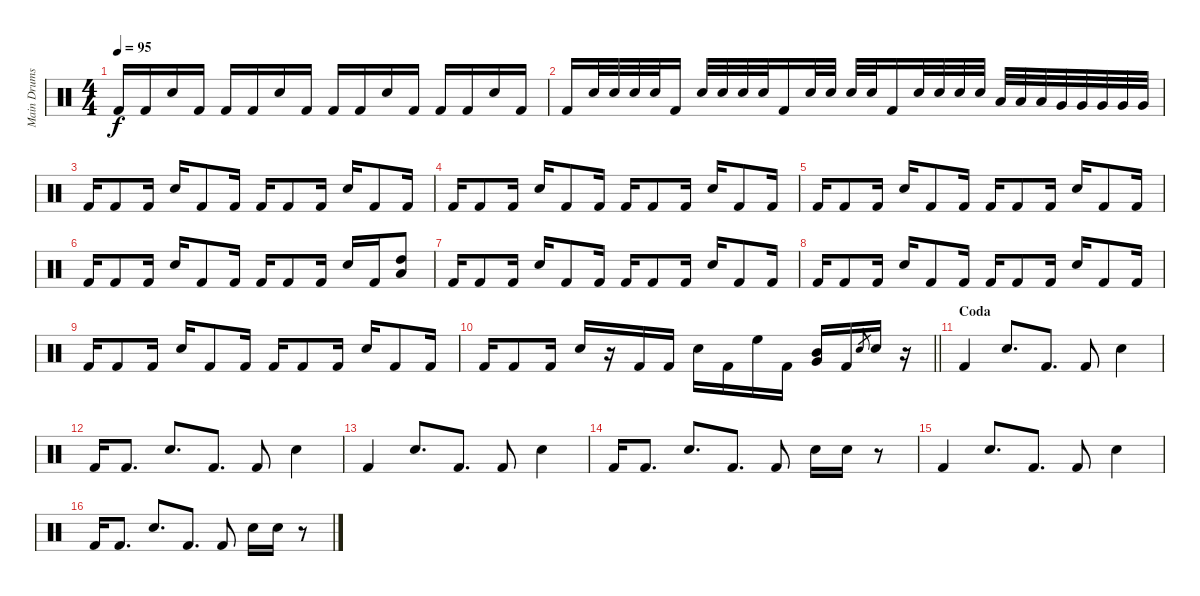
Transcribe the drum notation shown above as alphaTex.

\track ("Main Drums" "Main Drums") {instrument percussion}
\staff {score}
\articulation defaults
\ts (4 4)
\tempo 95
\clef neutral
\ks c "Kick (hit) 2".16{dy f} "Kick (hit) 2".16 "Snare (hit) 2".16 "Kick (hit) 2".16 "Kick (hit) 2".16 "Kick (hit) 2".16 "Snare (hit) 2".16 "Kick (hit) 2".16 "Kick (hit) 2".16 "Kick (hit) 2".16 "Snare (hit) 2".16 "Kick (hit) 2".16 "Kick (hit) 2".16 "Kick (hit) 2".16 "Snare (hit) 2".16 "Kick (hit) 2".16
|
"Kick (hit) 2".16 "Snare (hit) 2".32 "Snare (hit) 2".32 "Snare (hit) 2".32 "Snare (hit) 2".32 "Kick (hit) 2".16 "Snare (hit) 2".32 "Snare (hit) 2".32 "Snare (hit) 2".32 "Snare (hit) 2".32 "Kick (hit) 2".16 "Snare (hit) 2".32 "Snare (hit) 2".32 "Snare (hit) 2".32 "Snare (hit) 2".32 "Kick (hit) 2".16 "Snare (hit) 2".32 "Snare (hit) 2".32 "Snare (hit) 2".32 "Snare (hit) 2".32 "Low Tom (hit)".32 "Low Tom (hit)".32 "Low Tom (hit)".32 "Very Low Tom (hit)".32 "Very Low Tom (hit)".32 "Very Low Tom (hit)".32 "Very Low Tom (hit)".32 "Very Low Tom (hit)".32 |
"Kick (hit) 2".16 "Kick (hit) 2".8 "Kick (hit) 2".16 "Snare (hit) 2".16 "Kick (hit) 2".8 "Kick (hit) 2".16 "Kick (hit) 2".16 "Kick (hit) 2".8 "Kick (hit) 2".16 "Snare (hit) 2".16 "Kick (hit) 2".8 "Kick (hit) 2".16 |
"Kick (hit) 2".16 "Kick (hit) 2".8 "Kick (hit) 2".16 "Snare (hit) 2".16 "Kick (hit) 2".8 "Kick (hit) 2".16 "Kick (hit) 2".16 "Kick (hit) 2".8 "Kick (hit) 2".16 "Snare (hit) 2".16 "Kick (hit) 2".8 "Kick (hit) 2".16 |
"Kick (hit) 2".16 "Kick (hit) 2".8 "Kick (hit) 2".16 "Snare (hit) 2".16 "Kick (hit) 2".8 "Kick (hit) 2".16 "Kick (hit) 2".16 "Kick (hit) 2".8 "Kick (hit) 2".16 "Snare (hit) 2".16 "Kick (hit) 2".8 "Kick (hit) 2".16 |
"Kick (hit) 2".16 "Kick (hit) 2".8 "Kick (hit) 2".16 "Snare (hit) 2".16 "Kick (hit) 2".8 "Kick (hit) 2".16 "Kick (hit) 2".16 "Kick (hit) 2".8 "Kick (hit) 2".16 "Snare (hit) 2".16 "Kick (hit) 2".16 ("Low Floor Tom (hit)" "High Tom (hit)").8 |
"Kick (hit) 2".16 "Kick (hit) 2".8 "Kick (hit) 2".16 "Snare (hit) 2".16 "Kick (hit) 2".8 "Kick (hit) 2".16 "Kick (hit) 2".16 "Kick (hit) 2".8 "Kick (hit) 2".16 "Snare (hit) 2".16 "Kick (hit) 2".8 "Kick (hit) 2".16 |
"Kick (hit) 2".16 "Kick (hit) 2".8 "Kick (hit) 2".16 "Snare (hit) 2".16 "Kick (hit) 2".8 "Kick (hit) 2".16 "Kick (hit) 2".16 "Kick (hit) 2".8 "Kick (hit) 2".16 "Snare (hit) 2".16 "Kick (hit) 2".8 "Kick (hit) 2".16 |
"Kick (hit) 2".16 "Kick (hit) 2".8 "Kick (hit) 2".16 "Snare (hit) 2".16 "Kick (hit) 2".8 "Kick (hit) 2".16 "Kick (hit) 2".16 "Kick (hit) 2".8 "Kick (hit) 2".16 "Snare (hit) 2".16 "Kick (hit) 2".8 "Kick (hit) 2".16 |
\barLineRight lightlight "Kick (hit) 2".16 "Kick (hit) 2".8 "Kick (hit) 2".16 "Snare (hit) 2".16
r.16 "Kick (hit) 2".16 "Kick (hit) 2".16 "Snare (hit) 2".16 "Kick (hit) 2".16 "High Floor Tom (hit)".16 "Kick (hit) 2".16 ("Mid Tom (hit)" "Very Low Tom (hit)").16 "Kick (hit) 2".16 "Snare (hit) 2".8{gr} "Snare (hit) 2".16 r.16 |
\section ("" "Coda")
"Kick (hit) 2".4 "Snare (hit) 2".8{d} "Kick (hit) 2".8{d} "Kick (hit) 2".8 "Snare (hit) 2".4 |
"Kick (hit) 2".16 "Kick (hit) 2".8{d} "Snare (hit) 2".8{d} "Kick (hit) 2".8{d} "Kick (hit) 2".8 "Snare (hit) 2".4 |
"Kick (hit) 2".4 "Snare (hit) 2".8{d} "Kick (hit) 2".8{d} "Kick (hit) 2".8 "Snare (hit) 2".4 |
"Kick (hit) 2".16 "Kick (hit) 2".8{d} "Snare (hit) 2".8{d} "Kick (hit) 2".8{d} "Kick (hit) 2".8 "Snare (hit) 2".16 "Snare (hit) 2".16 r.8 |
"Kick (hit) 2".4 "Snare (hit) 2".8{d} "Kick (hit) 2".8{d} "Kick (hit) 2".8 "Snare (hit) 2".4 |
"Kick (hit) 2".16 "Kick (hit) 2".8{d} "Snare (hit) 2".8{d} "Kick (hit) 2".8{d} "Kick (hit) 2".8 "Snare (hit) 2".16 "Snare (hit) 2".16 r.8
